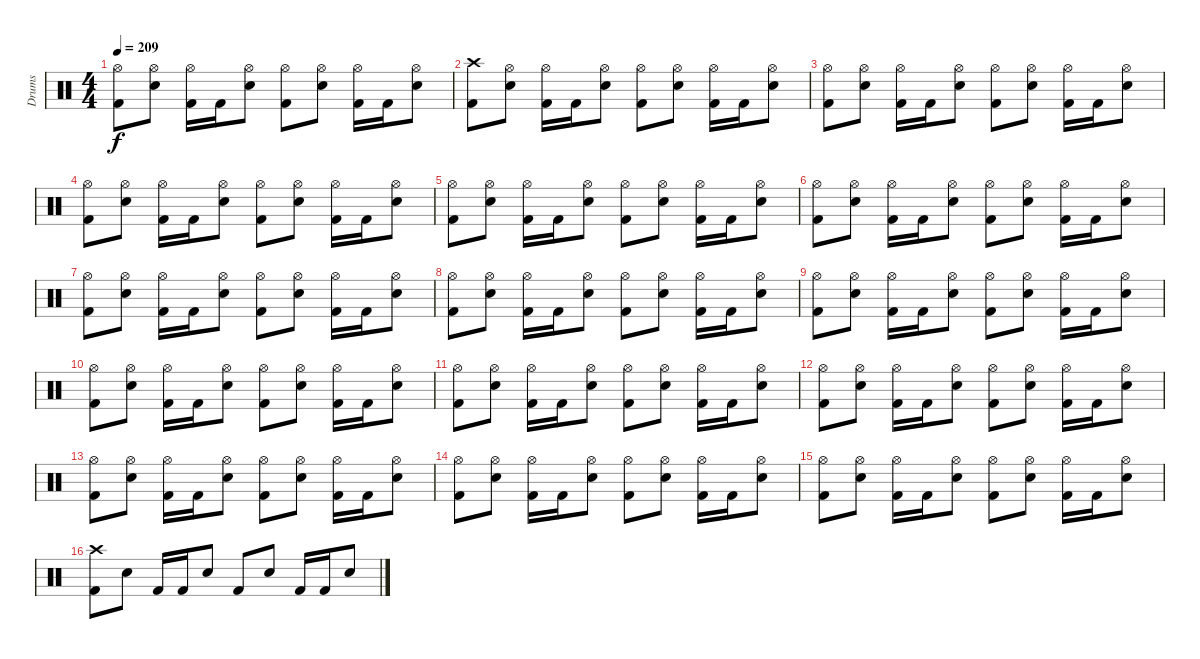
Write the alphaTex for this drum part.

\track ("Drums" "Drums") {instrument percussion}
\staff {score}
\articulation defaults
\ts (4 4)
\tempo 209
\clef neutral
\ks c
("Kick (hit) 2" "Hi-Hat (open)").8{dy f} ("Electric Snare (hit)" "Hi-Hat (open)").8 ("Kick (hit) 2" "Hi-Hat (open)").16 "Kick (hit) 2".16 ("Electric Snare (hit)" "Hi-Hat (open)").8 ("Kick (hit) 2" "Hi-Hat (open)").8 ("Electric Snare (hit)" "Hi-Hat (open)").8 ("Kick (hit) 2" "Hi-Hat (open)").16 "Kick (hit) 2".16 ("Electric Snare (hit)" "Hi-Hat (open)").8 |
("Kick (hit) 2" "Crash high (hit)").8 ("Electric Snare (hit)" "Hi-Hat (open)").8 ("Kick (hit) 2" "Hi-Hat (open)").16 "Kick (hit) 2".16 ("Electric Snare (hit)" "Hi-Hat (open)").8 ("Kick (hit) 2" "Hi-Hat (open)").8 ("Electric Snare (hit)" "Hi-Hat (open)").8 ("Kick (hit) 2" "Hi-Hat (open)").16 "Kick (hit) 2".16 ("Electric Snare (hit)" "Hi-Hat (open)").8 |
("Kick (hit) 2" "Hi-Hat (open)").8 ("Electric Snare (hit)" "Hi-Hat (open)").8 ("Kick (hit) 2" "Hi-Hat (open)").16 "Kick (hit) 2".16 ("Electric Snare (hit)" "Hi-Hat (open)").8 ("Kick (hit) 2" "Hi-Hat (open)").8 ("Electric Snare (hit)" "Hi-Hat (open)").8 ("Kick (hit) 2" "Hi-Hat (open)").16 "Kick (hit) 2".16 ("Electric Snare (hit)" "Hi-Hat (open)").8 |
("Kick (hit) 2" "Hi-Hat (open)").8 ("Electric Snare (hit)" "Hi-Hat (open)").8 ("Kick (hit) 2" "Hi-Hat (open)").16 "Kick (hit) 2".16 ("Electric Snare (hit)" "Hi-Hat (open)").8 ("Kick (hit) 2" "Hi-Hat (open)").8 ("Electric Snare (hit)" "Hi-Hat (open)").8 ("Kick (hit) 2" "Hi-Hat (open)").16 "Kick (hit) 2".16 ("Electric Snare (hit)" "Hi-Hat (open)").8 |
("Kick (hit) 2" "Hi-Hat (open)").8 ("Electric Snare (hit)" "Hi-Hat (open)").8 ("Kick (hit) 2" "Hi-Hat (open)").16 "Kick (hit) 2".16 ("Electric Snare (hit)" "Hi-Hat (open)").8 ("Kick (hit) 2" "Hi-Hat (open)").8 ("Electric Snare (hit)" "Hi-Hat (open)").8 ("Kick (hit) 2" "Hi-Hat (open)").16 "Kick (hit) 2".16 ("Electric Snare (hit)" "Hi-Hat (open)").8 |
("Kick (hit) 2" "Hi-Hat (open)").8 ("Electric Snare (hit)" "Hi-Hat (open)").8 ("Kick (hit) 2" "Hi-Hat (open)").16 "Kick (hit) 2".16 ("Electric Snare (hit)" "Hi-Hat (open)").8 ("Kick (hit) 2" "Hi-Hat (open)").8 ("Electric Snare (hit)" "Hi-Hat (open)").8 ("Kick (hit) 2" "Hi-Hat (open)").16 "Kick (hit) 2".16 ("Electric Snare (hit)" "Hi-Hat (open)").8 |
("Kick (hit) 2" "Hi-Hat (open)").8 ("Electric Snare (hit)" "Hi-Hat (open)").8 ("Kick (hit) 2" "Hi-Hat (open)").16 "Kick (hit) 2".16 ("Electric Snare (hit)" "Hi-Hat (open)").8 ("Kick (hit) 2" "Hi-Hat (open)").8 ("Electric Snare (hit)" "Hi-Hat (open)").8 ("Kick (hit) 2" "Hi-Hat (open)").16 "Kick (hit) 2".16 ("Electric Snare (hit)" "Hi-Hat (open)").8 |
("Kick (hit) 2" "Hi-Hat (open)").8 ("Electric Snare (hit)" "Hi-Hat (open)").8 ("Kick (hit) 2" "Hi-Hat (open)").16 "Kick (hit) 2".16 ("Electric Snare (hit)" "Hi-Hat (open)").8 ("Kick (hit) 2" "Hi-Hat (open)").8 ("Electric Snare (hit)" "Hi-Hat (open)").8 ("Kick (hit) 2" "Hi-Hat (open)").16 "Kick (hit) 2".16 ("Electric Snare (hit)" "Hi-Hat (open)").8 |
("Kick (hit) 2" "Hi-Hat (open)").8 ("Electric Snare (hit)" "Hi-Hat (open)").8 ("Kick (hit) 2" "Hi-Hat (open)").16 "Kick (hit) 2".16 ("Electric Snare (hit)" "Hi-Hat (open)").8 ("Kick (hit) 2" "Hi-Hat (open)").8 ("Electric Snare (hit)" "Hi-Hat (open)").8 ("Kick (hit) 2" "Hi-Hat (open)").16 "Kick (hit) 2".16 ("Electric Snare (hit)" "Hi-Hat (open)").8 |
("Kick (hit) 2" "Hi-Hat (open)").8 ("Electric Snare (hit)" "Hi-Hat (open)").8 ("Kick (hit) 2" "Hi-Hat (open)").16 "Kick (hit) 2".16 ("Electric Snare (hit)" "Hi-Hat (open)").8 ("Kick (hit) 2" "Hi-Hat (open)").8 ("Electric Snare (hit)" "Hi-Hat (open)").8 ("Kick (hit) 2" "Hi-Hat (open)").16 "Kick (hit) 2".16 ("Electric Snare (hit)" "Hi-Hat (open)").8 |
("Kick (hit) 2" "Hi-Hat (open)").8 ("Electric Snare (hit)" "Hi-Hat (open)").8 ("Kick (hit) 2" "Hi-Hat (open)").16 "Kick (hit) 2".16 ("Electric Snare (hit)" "Hi-Hat (open)").8 ("Kick (hit) 2" "Hi-Hat (open)").8 ("Electric Snare (hit)" "Hi-Hat (open)").8 ("Kick (hit) 2" "Hi-Hat (open)").16 "Kick (hit) 2".16 ("Electric Snare (hit)" "Hi-Hat (open)").8 |
("Kick (hit) 2" "Hi-Hat (open)").8 ("Electric Snare (hit)" "Hi-Hat (open)").8 ("Kick (hit) 2" "Hi-Hat (open)").16 "Kick (hit) 2".16 ("Electric Snare (hit)" "Hi-Hat (open)").8 ("Kick (hit) 2" "Hi-Hat (open)").8 ("Electric Snare (hit)" "Hi-Hat (open)").8 ("Kick (hit) 2" "Hi-Hat (open)").16 "Kick (hit) 2".16 ("Electric Snare (hit)" "Hi-Hat (open)").8 |
("Kick (hit) 2" "Hi-Hat (open)").8 ("Electric Snare (hit)" "Hi-Hat (open)").8 ("Kick (hit) 2" "Hi-Hat (open)").16 "Kick (hit) 2".16 ("Electric Snare (hit)" "Hi-Hat (open)").8 ("Kick (hit) 2" "Hi-Hat (open)").8 ("Electric Snare (hit)" "Hi-Hat (open)").8 ("Kick (hit) 2" "Hi-Hat (open)").16 "Kick (hit) 2".16 ("Electric Snare (hit)" "Hi-Hat (open)").8 |
("Kick (hit) 2" "Hi-Hat (open)").8 ("Electric Snare (hit)" "Hi-Hat (open)").8 ("Kick (hit) 2" "Hi-Hat (open)").16 "Kick (hit) 2".16 ("Electric Snare (hit)" "Hi-Hat (open)").8 ("Kick (hit) 2" "Hi-Hat (open)").8 ("Electric Snare (hit)" "Hi-Hat (open)").8 ("Kick (hit) 2" "Hi-Hat (open)").16 "Kick (hit) 2".16 ("Electric Snare (hit)" "Hi-Hat (open)").8 |
("Kick (hit) 2" "Hi-Hat (open)").8 ("Electric Snare (hit)" "Hi-Hat (open)").8 ("Kick (hit) 2" "Hi-Hat (open)").16 "Kick (hit) 2".16 ("Electric Snare (hit)" "Hi-Hat (open)").8 ("Kick (hit) 2" "Hi-Hat (open)").8 ("Electric Snare (hit)" "Hi-Hat (open)").8 ("Kick (hit) 2" "Hi-Hat (open)").16 "Kick (hit) 2".16 ("Electric Snare (hit)" "Hi-Hat (open)").8 |
("Crash high (hit)" "Kick (hit) 2").8 "Electric Snare (hit)".8 "Kick (hit) 2".16 "Kick (hit) 2".16 "Electric Snare (hit)".8 "Kick (hit) 2".8 "Electric Snare (hit)".8 "Kick (hit) 2".16 "Kick (hit) 2".16 "Electric Snare (hit)".8
